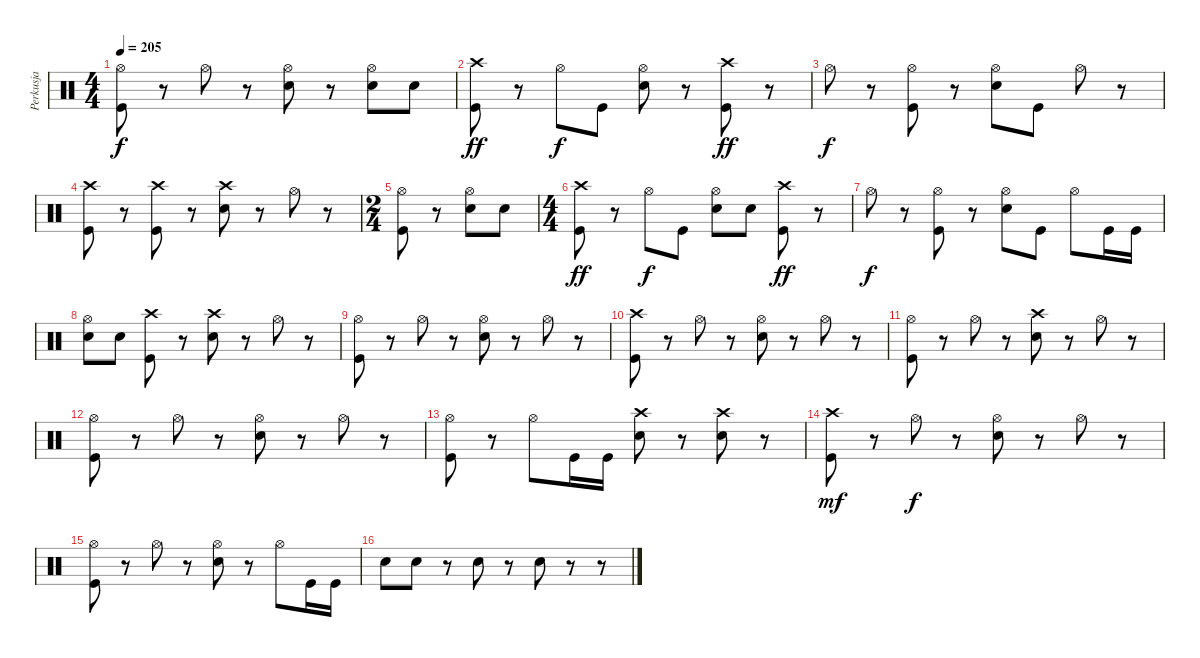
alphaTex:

\track ("Perkusja" "Perkusja") {instrument percussion}
\staff {score}
\articulation defaults
\ts (4 4)
\tempo 205
\clef neutral
\ks c
("Hi-Hat (open)" "Kick (hit)").8{dy f} r.8 "Hi-Hat (open)".8 r.8 ("Hi-Hat (open)" "Snare (hit) 2").8 r.8 ("Hi-Hat (open)" "Snare (hit) 2").8 "Snare (hit) 2".8 |
("Crash high (hit)" "Kick (hit)").8{dy ff} r.8 "Hi-Hat (open)".8{dy f} "Kick (hit)".8 ("Hi-Hat (open)" "Snare (hit) 2").8 r.8 ("Crash high (hit)" "Kick (hit)").8{dy ff} r.8 |
"Hi-Hat (open)".8{dy f} r.8 ("Hi-Hat (open)" "Kick (hit)").8 r.8 ("Hi-Hat (open)" "Snare (hit) 2").8 "Kick (hit)".8 "Hi-Hat (open)".8 r.8 |
("Crash high (hit)" "Kick (hit)").8 r.8 ("Crash high (hit)" "Kick (hit)").8 r.8 ("Crash high (hit)" "Snare (hit) 2").8 r.8 "Hi-Hat (open)".8 r.8 |
\ts (2 4)
("Hi-Hat (open)" "Kick (hit)").8 r.8 ("Hi-Hat (open)" "Snare (hit) 2").8 "Snare (hit) 2".8 |
\ts (4 4)
("Crash high (hit)" "Kick (hit)").8{dy ff} r.8 "Hi-Hat (open)".8{dy f} "Kick (hit)".8 ("Hi-Hat (open)" "Snare (hit) 2").8 "Snare (hit) 2".8 ("Crash high (hit)" "Kick (hit)").8{dy ff} r.8 |
"Hi-Hat (open)".8{dy f} r.8 ("Hi-Hat (open)" "Kick (hit)").8 r.8 ("Hi-Hat (open)" "Snare (hit) 2").8 "Kick (hit)".8 "Hi-Hat (open)".8 "Kick (hit)".16 "Kick (hit)".16 |
("Hi-Hat (open)" "Snare (hit) 2").8 "Snare (hit) 2".8 ("Crash high (hit)" "Kick (hit)").8 r.8 ("Crash high (hit)" "Snare (hit) 2").8 r.8 "Hi-Hat (open)".8 r.8 |
("Hi-Hat (open)" "Kick (hit)").8 r.8 "Hi-Hat (open)".8 r.8 ("Hi-Hat (open)" "Snare (hit) 2").8 r.8 "Hi-Hat (open)".8 r.8 |
("Crash high (hit)" "Kick (hit)").8 r.8 "Hi-Hat (open)".8 r.8 ("Hi-Hat (open)" "Snare (hit) 2").8 r.8 "Hi-Hat (open)".8 r.8 |
("Hi-Hat (open)" "Kick (hit)").8 r.8 "Hi-Hat (open)".8 r.8 ("Crash high (hit)" "Snare (hit) 2").8 r.8 "Hi-Hat (open)".8 r.8 |
("Hi-Hat (open)" "Kick (hit)").8 r.8 "Hi-Hat (open)".8 r.8 ("Hi-Hat (open)" "Snare (hit) 2").8 r.8 "Hi-Hat (open)".8 r.8 |
("Hi-Hat (open)" "Kick (hit)").8 r.8 "Hi-Hat (open)".8 "Kick (hit)".16 "Kick (hit)".16 ("Crash high (hit)" "Snare (hit) 2").8 r.8 ("Crash high (hit)" "Snare (hit) 2").8 r.8 |
("Crash high (hit)" "Kick (hit)").8{dy mf} r.8 "Hi-Hat (open)".8{dy f} r.8 ("Hi-Hat (open)" "Snare (hit) 2").8 r.8 "Hi-Hat (open)".8 r.8 |
("Hi-Hat (open)" "Kick (hit)").8 r.8 "Hi-Hat (open)".8 r.8 ("Hi-Hat (open)" "Snare (hit) 2").8 r.8 "Hi-Hat (open)".8 "Kick (hit)".16 "Kick (hit)".16 |
"Snare (hit) 2".8 "Snare (hit) 2".8 r.8 "Snare (hit) 2".8 r.8 "Snare (hit) 2".8 r.8 r.8
